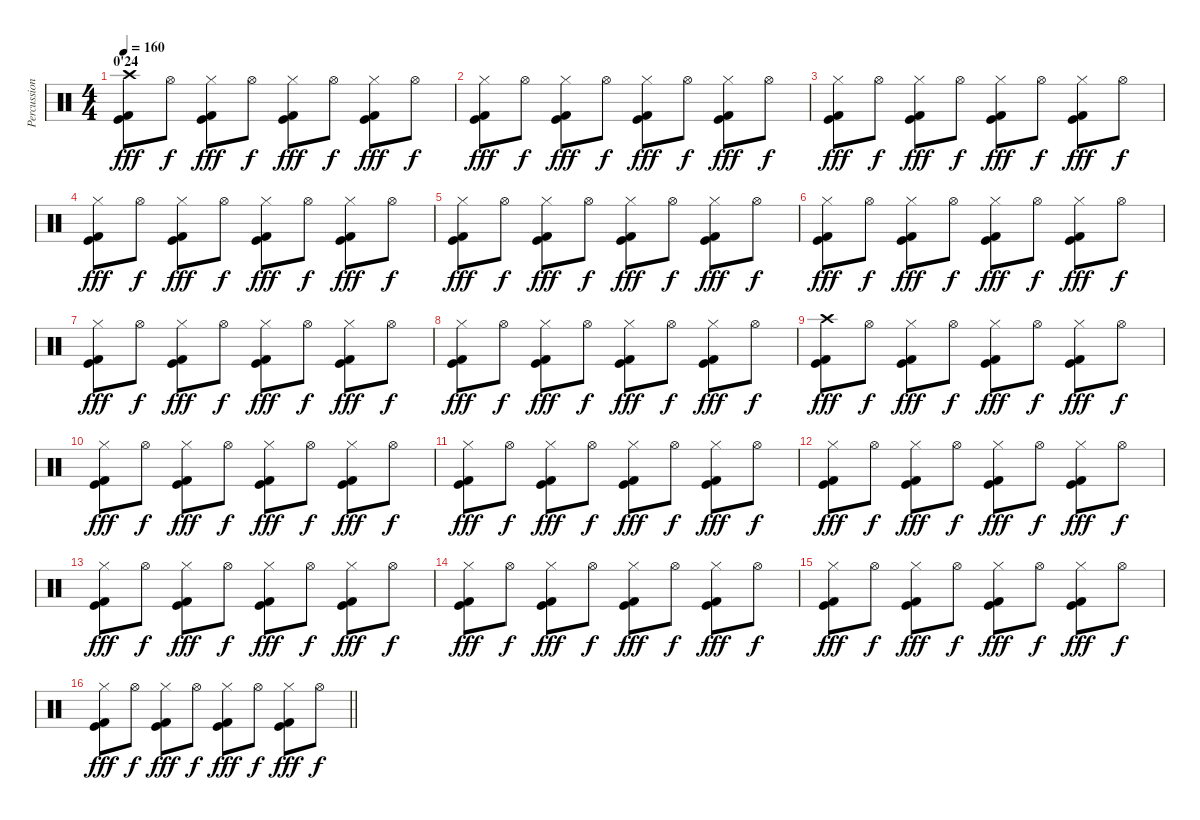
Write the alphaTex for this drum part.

\track ("Percussions" "Percussion") {instrument percussion}
\staff {score}
\articulation defaults
\ts (4 4)
\section ("" "0'24")
\tempo 160
\clef neutral
\ks c
("Crash high (hit)" "Kick (hit) 2" "Kick (hit)").8{dy fff} "Hi-Hat (open)".8{dy f} ("Hi-Hat (closed)" "Kick (hit) 2" "Kick (hit)").8{dy fff} "Hi-Hat (open)".8{dy f} ("Hi-Hat (closed)" "Kick (hit) 2" "Kick (hit)").8{dy fff} "Hi-Hat (open)".8{dy f} ("Hi-Hat (closed)" "Kick (hit) 2" "Kick (hit)").8{dy fff} "Hi-Hat (open)".8{dy f} |
("Hi-Hat (closed)" "Kick (hit) 2" "Kick (hit)").8{dy fff} "Hi-Hat (open)".8{dy f} ("Hi-Hat (closed)" "Kick (hit) 2" "Kick (hit)").8{dy fff} "Hi-Hat (open)".8{dy f} ("Hi-Hat (closed)" "Kick (hit) 2" "Kick (hit)").8{dy fff} "Hi-Hat (open)".8{dy f} ("Hi-Hat (closed)" "Kick (hit) 2" "Kick (hit)").8{dy fff} "Hi-Hat (open)".8{dy f} |
("Hi-Hat (closed)" "Kick (hit) 2" "Kick (hit)").8{dy fff} "Hi-Hat (open)".8{dy f} ("Hi-Hat (closed)" "Kick (hit) 2" "Kick (hit)").8{dy fff} "Hi-Hat (open)".8{dy f} ("Hi-Hat (closed)" "Kick (hit) 2" "Kick (hit)").8{dy fff} "Hi-Hat (open)".8{dy f} ("Hi-Hat (closed)" "Kick (hit) 2" "Kick (hit)").8{dy fff} "Hi-Hat (open)".8{dy f} |
("Hi-Hat (closed)" "Kick (hit) 2" "Kick (hit)").8{dy fff} "Hi-Hat (open)".8{dy f} ("Hi-Hat (closed)" "Kick (hit) 2" "Kick (hit)").8{dy fff} "Hi-Hat (open)".8{dy f} ("Hi-Hat (closed)" "Kick (hit) 2" "Kick (hit)").8{dy fff} "Hi-Hat (open)".8{dy f} ("Hi-Hat (closed)" "Kick (hit) 2" "Kick (hit)").8{dy fff} "Hi-Hat (open)".8{dy f} |
("Hi-Hat (closed)" "Kick (hit) 2" "Kick (hit)").8{dy fff} "Hi-Hat (open)".8{dy f} ("Hi-Hat (closed)" "Kick (hit) 2" "Kick (hit)").8{dy fff} "Hi-Hat (open)".8{dy f} ("Hi-Hat (closed)" "Kick (hit) 2" "Kick (hit)").8{dy fff} "Hi-Hat (open)".8{dy f} ("Hi-Hat (closed)" "Kick (hit) 2" "Kick (hit)").8{dy fff} "Hi-Hat (open)".8{dy f} |
("Hi-Hat (closed)" "Kick (hit) 2" "Kick (hit)").8{dy fff} "Hi-Hat (open)".8{dy f} ("Hi-Hat (closed)" "Kick (hit) 2" "Kick (hit)").8{dy fff} "Hi-Hat (open)".8{dy f} ("Hi-Hat (closed)" "Kick (hit) 2" "Kick (hit)").8{dy fff} "Hi-Hat (open)".8{dy f} ("Hi-Hat (closed)" "Kick (hit) 2" "Kick (hit)").8{dy fff} "Hi-Hat (open)".8{dy f} |
("Hi-Hat (closed)" "Kick (hit) 2" "Kick (hit)").8{dy fff} "Hi-Hat (open)".8{dy f} ("Hi-Hat (closed)" "Kick (hit) 2" "Kick (hit)").8{dy fff} "Hi-Hat (open)".8{dy f} ("Hi-Hat (closed)" "Kick (hit) 2" "Kick (hit)").8{dy fff} "Hi-Hat (open)".8{dy f} ("Hi-Hat (closed)" "Kick (hit) 2" "Kick (hit)").8{dy fff} "Hi-Hat (open)".8{dy f} |
("Hi-Hat (closed)" "Kick (hit) 2" "Kick (hit)").8{dy fff} "Hi-Hat (open)".8{dy f} ("Hi-Hat (closed)" "Kick (hit) 2" "Kick (hit)").8{dy fff} "Hi-Hat (open)".8{dy f} ("Hi-Hat (closed)" "Kick (hit) 2" "Kick (hit)").8{dy fff} "Hi-Hat (open)".8{dy f} ("Hi-Hat (closed)" "Kick (hit) 2" "Kick (hit)").8{dy fff} "Hi-Hat (open)".8{dy f} |
("Crash high (hit)" "Kick (hit) 2" "Kick (hit)").8{dy fff} "Hi-Hat (open)".8{dy f} ("Hi-Hat (closed)" "Kick (hit) 2" "Kick (hit)").8{dy fff} "Hi-Hat (open)".8{dy f} ("Hi-Hat (closed)" "Kick (hit) 2" "Kick (hit)").8{dy fff} "Hi-Hat (open)".8{dy f} ("Hi-Hat (closed)" "Kick (hit) 2" "Kick (hit)").8{dy fff} "Hi-Hat (open)".8{dy f} |
("Hi-Hat (closed)" "Kick (hit) 2" "Kick (hit)").8{dy fff} "Hi-Hat (open)".8{dy f} ("Hi-Hat (closed)" "Kick (hit) 2" "Kick (hit)").8{dy fff} "Hi-Hat (open)".8{dy f} ("Hi-Hat (closed)" "Kick (hit) 2" "Kick (hit)").8{dy fff} "Hi-Hat (open)".8{dy f} ("Hi-Hat (closed)" "Kick (hit) 2" "Kick (hit)").8{dy fff} "Hi-Hat (open)".8{dy f} |
("Hi-Hat (closed)" "Kick (hit) 2" "Kick (hit)").8{dy fff} "Hi-Hat (open)".8{dy f} ("Hi-Hat (closed)" "Kick (hit) 2" "Kick (hit)").8{dy fff} "Hi-Hat (open)".8{dy f} ("Hi-Hat (closed)" "Kick (hit) 2" "Kick (hit)").8{dy fff} "Hi-Hat (open)".8{dy f} ("Hi-Hat (closed)" "Kick (hit) 2" "Kick (hit)").8{dy fff} "Hi-Hat (open)".8{dy f} |
("Hi-Hat (closed)" "Kick (hit) 2" "Kick (hit)").8{dy fff} "Hi-Hat (open)".8{dy f} ("Hi-Hat (closed)" "Kick (hit) 2" "Kick (hit)").8{dy fff} "Hi-Hat (open)".8{dy f} ("Hi-Hat (closed)" "Kick (hit) 2" "Kick (hit)").8{dy fff} "Hi-Hat (open)".8{dy f} ("Hi-Hat (closed)" "Kick (hit) 2" "Kick (hit)").8{dy fff} "Hi-Hat (open)".8{dy f} |
("Hi-Hat (closed)" "Kick (hit) 2" "Kick (hit)").8{dy fff} "Hi-Hat (open)".8{dy f} ("Hi-Hat (closed)" "Kick (hit) 2" "Kick (hit)").8{dy fff} "Hi-Hat (open)".8{dy f} ("Hi-Hat (closed)" "Kick (hit) 2" "Kick (hit)").8{dy fff} "Hi-Hat (open)".8{dy f} ("Hi-Hat (closed)" "Kick (hit) 2" "Kick (hit)").8{dy fff} "Hi-Hat (open)".8{dy f} |
("Hi-Hat (closed)" "Kick (hit) 2" "Kick (hit)").8{dy fff} "Hi-Hat (open)".8{dy f} ("Hi-Hat (closed)" "Kick (hit) 2" "Kick (hit)").8{dy fff} "Hi-Hat (open)".8{dy f} ("Hi-Hat (closed)" "Kick (hit) 2" "Kick (hit)").8{dy fff} "Hi-Hat (open)".8{dy f} ("Hi-Hat (closed)" "Kick (hit) 2" "Kick (hit)").8{dy fff} "Hi-Hat (open)".8{dy f} |
("Hi-Hat (closed)" "Kick (hit) 2" "Kick (hit)").8{dy fff} "Hi-Hat (open)".8{dy f} ("Hi-Hat (closed)" "Kick (hit) 2" "Kick (hit)").8{dy fff} "Hi-Hat (open)".8{dy f} ("Hi-Hat (closed)" "Kick (hit) 2" "Kick (hit)").8{dy fff} "Hi-Hat (open)".8{dy f} ("Hi-Hat (closed)" "Kick (hit) 2" "Kick (hit)").8{dy fff} "Hi-Hat (open)".8{dy f} |
\barLineRight lightlight
("Hi-Hat (closed)" "Kick (hit) 2" "Kick (hit)").8{dy fff} "Hi-Hat (open)".8{dy f} ("Hi-Hat (closed)" "Kick (hit) 2" "Kick (hit)").8{dy fff} "Hi-Hat (open)".8{dy f} ("Hi-Hat (closed)" "Kick (hit) 2" "Kick (hit)").8{dy fff} "Hi-Hat (open)".8{dy f} ("Hi-Hat (closed)" "Kick (hit) 2" "Kick (hit)").8{dy fff} "Hi-Hat (open)".8{dy f}
